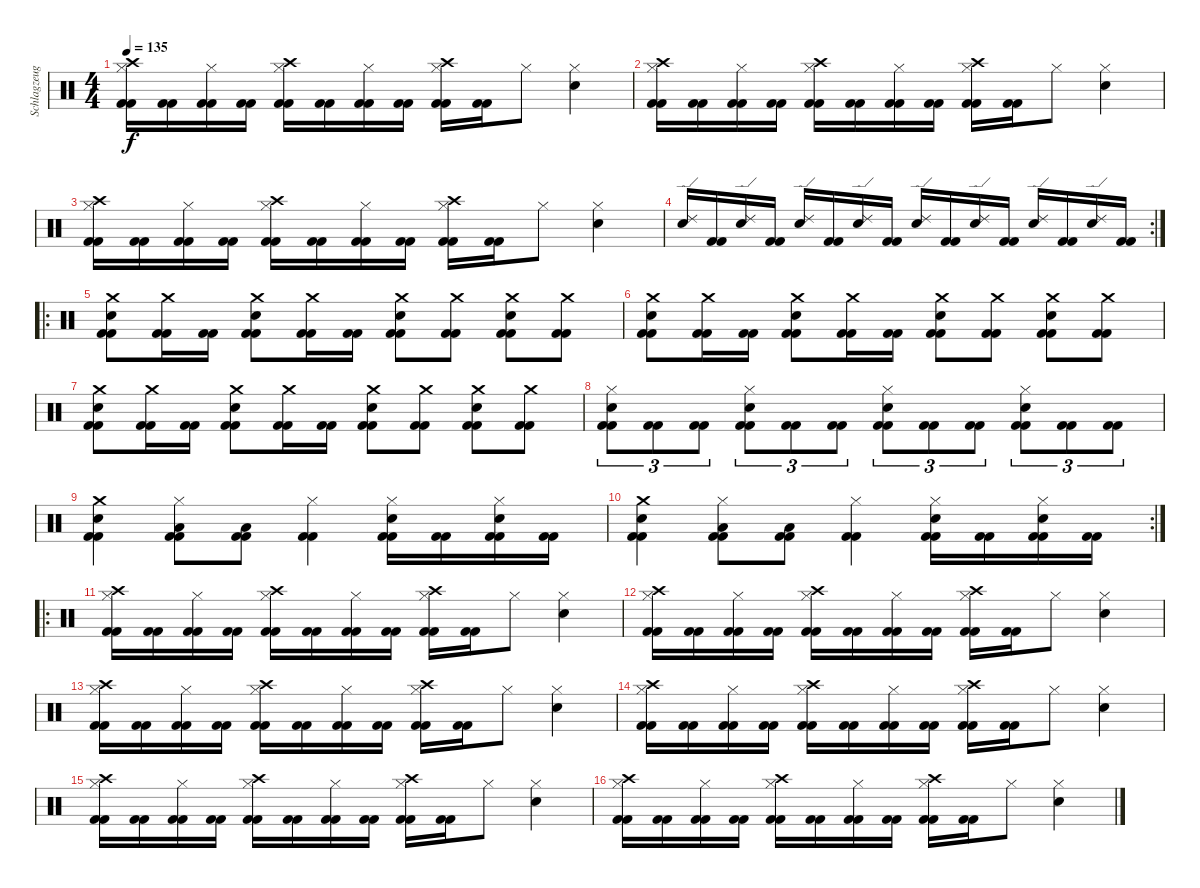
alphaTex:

\track ("Schlagzeug" "Schlagzeug") {instrument percussion}
\staff {score}
\articulation defaults
\ts (4 4)
\tempo 135
\clef neutral
\ks c
("Hi-Hat (closed)" "Crash high (hit)" "Kick (hit) 2" "Kick (hit) 2").16{dy f} ("Kick (hit) 2" "Kick (hit) 2").16 ("Hi-Hat (closed)" "Kick (hit) 2" "Kick (hit) 2").16 ("Kick (hit) 2" "Kick (hit) 2").16 ("Hi-Hat (closed)" "Crash high (hit)" "Kick (hit) 2" "Kick (hit) 2").16 ("Kick (hit) 2" "Kick (hit) 2").16 ("Hi-Hat (closed)" "Kick (hit) 2" "Kick (hit) 2").16 ("Kick (hit) 2" "Kick (hit) 2").16 ("Hi-Hat (closed)" "Crash high (hit)" "Kick (hit) 2" "Kick (hit) 2").16 ("Kick (hit) 2" "Kick (hit) 2").16 "Hi-Hat (closed)".8 ("Hi-Hat (closed)" "Snare (hit) 2").4 |
("Hi-Hat (closed)" "Crash high (hit)" "Kick (hit) 2" "Kick (hit) 2").16 ("Kick (hit) 2" "Kick (hit) 2").16 ("Hi-Hat (closed)" "Kick (hit) 2" "Kick (hit) 2").16 ("Kick (hit) 2" "Kick (hit) 2").16 ("Hi-Hat (closed)" "Crash high (hit)" "Kick (hit) 2" "Kick (hit) 2").16 ("Kick (hit) 2" "Kick (hit) 2").16 ("Hi-Hat (closed)" "Kick (hit) 2" "Kick (hit) 2").16 ("Kick (hit) 2" "Kick (hit) 2").16 ("Hi-Hat (closed)" "Crash high (hit)" "Kick (hit) 2" "Kick (hit) 2").16 ("Kick (hit) 2" "Kick (hit) 2").16 "Hi-Hat (closed)".8 ("Hi-Hat (closed)" "Snare (hit) 2").4 |
("Hi-Hat (closed)" "Crash high (hit)" "Kick (hit) 2" "Kick (hit) 2").16 ("Kick (hit) 2" "Kick (hit) 2").16 ("Hi-Hat (closed)" "Kick (hit) 2" "Kick (hit) 2").16 ("Kick (hit) 2" "Kick (hit) 2").16 ("Hi-Hat (closed)" "Crash high (hit)" "Kick (hit) 2" "Kick (hit) 2").16 ("Kick (hit) 2" "Kick (hit) 2").16 ("Hi-Hat (closed)" "Kick (hit) 2" "Kick (hit) 2").16 ("Kick (hit) 2" "Kick (hit) 2").16 ("Hi-Hat (closed)" "Crash high (hit)" "Kick (hit) 2" "Kick (hit) 2").16 ("Kick (hit) 2" "Kick (hit) 2").16 "Hi-Hat (closed)".8 ("Hi-Hat (closed)" "Snare (hit) 2").4 |
\rc 2
("Ride (edge) 2" "Snare (hit) 2").16 ("Kick (hit) 2" "Kick (hit) 2").16 ("Ride (edge) 2" "Snare (hit) 2").16 ("Kick (hit) 2" "Kick (hit) 2").16 ("Ride (edge) 2" "Snare (hit) 2").16 ("Kick (hit) 2" "Kick (hit) 2").16 ("Ride (edge) 2" "Snare (hit) 2").16 ("Kick (hit) 2" "Kick (hit) 2").16 ("Ride (edge) 2" "Snare (hit) 2").16 ("Kick (hit) 2" "Kick (hit) 2").16 ("Ride (edge) 2" "Snare (hit) 2").16 ("Kick (hit) 2" "Kick (hit) 2").16 ("Ride (edge) 2" "Snare (hit) 2").16 ("Kick (hit) 2" "Kick (hit) 2").16 ("Ride (edge) 2" "Snare (hit) 2").16 ("Kick (hit) 2" "Kick (hit) 2").16 |
\ro
("Crash medium (hit)" "Snare (hit) 2" "Kick (hit) 2" "Kick (hit) 2").8 ("Crash medium (hit)" "Kick (hit) 2" "Kick (hit) 2").16 ("Kick (hit) 2" "Kick (hit) 2").16 ("Crash medium (hit)" "Snare (hit) 2" "Kick (hit) 2" "Kick (hit) 2").8 ("Crash medium (hit)" "Kick (hit) 2" "Kick (hit) 2").16 ("Kick (hit) 2" "Kick (hit) 2").16 ("Crash medium (hit)" "Snare (hit) 2" "Kick (hit) 2" "Kick (hit) 2").8 ("Crash medium (hit)" "Kick (hit) 2" "Kick (hit) 2").8 ("Crash medium (hit)" "Snare (hit) 2" "Kick (hit) 2" "Kick (hit) 2").8 ("Crash medium (hit)" "Kick (hit) 2" "Kick (hit) 2").8 |
("Crash medium (hit)" "Snare (hit) 2" "Kick (hit) 2" "Kick (hit) 2").8 ("Crash medium (hit)" "Kick (hit) 2" "Kick (hit) 2").16 ("Kick (hit) 2" "Kick (hit) 2").16 ("Crash medium (hit)" "Snare (hit) 2" "Kick (hit) 2" "Kick (hit) 2").8 ("Crash medium (hit)" "Kick (hit) 2" "Kick (hit) 2").16 ("Kick (hit) 2" "Kick (hit) 2").16 ("Crash medium (hit)" "Snare (hit) 2" "Kick (hit) 2" "Kick (hit) 2").8 ("Crash medium (hit)" "Kick (hit) 2" "Kick (hit) 2").8 ("Crash medium (hit)" "Snare (hit) 2" "Kick (hit) 2" "Kick (hit) 2").8 ("Crash medium (hit)" "Kick (hit) 2" "Kick (hit) 2").8 |
("Crash medium (hit)" "Snare (hit) 2" "Kick (hit) 2" "Kick (hit) 2").8 ("Crash medium (hit)" "Kick (hit) 2" "Kick (hit) 2").16 ("Kick (hit) 2" "Kick (hit) 2").16 ("Crash medium (hit)" "Snare (hit) 2" "Kick (hit) 2" "Kick (hit) 2").8 ("Crash medium (hit)" "Kick (hit) 2" "Kick (hit) 2").16 ("Kick (hit) 2" "Kick (hit) 2").16 ("Crash medium (hit)" "Snare (hit) 2" "Kick (hit) 2" "Kick (hit) 2").8 ("Crash medium (hit)" "Kick (hit) 2" "Kick (hit) 2").8 ("Crash medium (hit)" "Snare (hit) 2" "Kick (hit) 2" "Kick (hit) 2").8 ("Crash medium (hit)" "Kick (hit) 2" "Kick (hit) 2").8 |
("Hi-Hat (closed)" "Snare (hit) 2" "Kick (hit) 2" "Kick (hit) 2").8{tu (3 2)} ("Kick (hit) 2" "Kick (hit) 2").8{tu (3 2)} ("Kick (hit) 2" "Kick (hit) 2").8{tu (3 2)} ("Hi-Hat (closed)" "Snare (hit) 2" "Kick (hit) 2" "Kick (hit) 2").8{tu (3 2)} ("Kick (hit) 2" "Kick (hit) 2").8{tu (3 2)} ("Kick (hit) 2" "Kick (hit) 2").8{tu (3 2)} ("Hi-Hat (closed)" "Snare (hit) 2" "Kick (hit) 2" "Kick (hit) 2").8{tu (3 2)} ("Kick (hit) 2" "Kick (hit) 2").8{tu (3 2)} ("Kick (hit) 2" "Kick (hit) 2").8{tu (3 2)} ("Hi-Hat (closed)" "Snare (hit) 2" "Kick (hit) 2" "Kick (hit) 2").8{tu (3 2)} ("Kick (hit) 2" "Kick (hit) 2").8{tu (3 2)} ("Kick (hit) 2" "Kick (hit) 2").8{tu (3 2)} |
("Crash medium (hit)" "Snare (hit) 2" "Kick (hit) 2" "Kick (hit) 2").4 ("Hi-Hat (closed)" "Low Floor Tom (hit)" "Kick (hit) 2" "Kick (hit) 2").8 ("Low Floor Tom (hit)" "Kick (hit) 2" "Kick (hit) 2").8 ("Hi-Hat (closed)" "Kick (hit) 2" "Kick (hit) 2").4 ("Hi-Hat (closed)" "Snare (hit) 2" "Kick (hit) 2" "Kick (hit) 2").16 ("Kick (hit) 2" "Kick (hit) 2").16 ("Hi-Hat (closed)" "Snare (hit) 2" "Kick (hit) 2" "Kick (hit) 2").16 ("Kick (hit) 2" "Kick (hit) 2").16 |
\rc 2
("Crash medium (hit)" "Snare (hit) 2" "Kick (hit) 2" "Kick (hit) 2").4 ("Hi-Hat (closed)" "Low Floor Tom (hit)" "Kick (hit) 2" "Kick (hit) 2").8 ("Low Floor Tom (hit)" "Kick (hit) 2" "Kick (hit) 2").8 ("Hi-Hat (closed)" "Kick (hit) 2" "Kick (hit) 2").4 ("Hi-Hat (closed)" "Snare (hit) 2" "Kick (hit) 2" "Kick (hit) 2").16 ("Kick (hit) 2" "Kick (hit) 2").16 ("Hi-Hat (closed)" "Snare (hit) 2" "Kick (hit) 2" "Kick (hit) 2").16 ("Kick (hit) 2" "Kick (hit) 2").16 |
\ro
("Hi-Hat (closed)" "Crash high (hit)" "Kick (hit) 2" "Kick (hit) 2").16 ("Kick (hit) 2" "Kick (hit) 2").16 ("Hi-Hat (closed)" "Kick (hit) 2" "Kick (hit) 2").16 ("Kick (hit) 2" "Kick (hit) 2").16 ("Hi-Hat (closed)" "Crash high (hit)" "Kick (hit) 2" "Kick (hit) 2").16 ("Kick (hit) 2" "Kick (hit) 2").16 ("Hi-Hat (closed)" "Kick (hit) 2" "Kick (hit) 2").16 ("Kick (hit) 2" "Kick (hit) 2").16 ("Hi-Hat (closed)" "Crash high (hit)" "Kick (hit) 2" "Kick (hit) 2").16 ("Kick (hit) 2" "Kick (hit) 2").16 "Hi-Hat (closed)".8 ("Hi-Hat (closed)" "Snare (hit) 2").4 |
("Hi-Hat (closed)" "Crash high (hit)" "Kick (hit) 2" "Kick (hit) 2").16 ("Kick (hit) 2" "Kick (hit) 2").16 ("Hi-Hat (closed)" "Kick (hit) 2" "Kick (hit) 2").16 ("Kick (hit) 2" "Kick (hit) 2").16 ("Hi-Hat (closed)" "Crash high (hit)" "Kick (hit) 2" "Kick (hit) 2").16 ("Kick (hit) 2" "Kick (hit) 2").16 ("Hi-Hat (closed)" "Kick (hit) 2" "Kick (hit) 2").16 ("Kick (hit) 2" "Kick (hit) 2").16 ("Hi-Hat (closed)" "Crash high (hit)" "Kick (hit) 2" "Kick (hit) 2").16 ("Kick (hit) 2" "Kick (hit) 2").16 "Hi-Hat (closed)".8 ("Hi-Hat (closed)" "Snare (hit) 2").4 |
("Hi-Hat (closed)" "Crash high (hit)" "Kick (hit) 2" "Kick (hit) 2").16 ("Kick (hit) 2" "Kick (hit) 2").16 ("Hi-Hat (closed)" "Kick (hit) 2" "Kick (hit) 2").16 ("Kick (hit) 2" "Kick (hit) 2").16 ("Hi-Hat (closed)" "Crash high (hit)" "Kick (hit) 2" "Kick (hit) 2").16 ("Kick (hit) 2" "Kick (hit) 2").16 ("Hi-Hat (closed)" "Kick (hit) 2" "Kick (hit) 2").16 ("Kick (hit) 2" "Kick (hit) 2").16 ("Hi-Hat (closed)" "Crash high (hit)" "Kick (hit) 2" "Kick (hit) 2").16 ("Kick (hit) 2" "Kick (hit) 2").16 "Hi-Hat (closed)".8 ("Hi-Hat (closed)" "Snare (hit) 2").4 |
("Hi-Hat (closed)" "Crash high (hit)" "Kick (hit) 2" "Kick (hit) 2").16 ("Kick (hit) 2" "Kick (hit) 2").16 ("Hi-Hat (closed)" "Kick (hit) 2" "Kick (hit) 2").16 ("Kick (hit) 2" "Kick (hit) 2").16 ("Hi-Hat (closed)" "Crash high (hit)" "Kick (hit) 2" "Kick (hit) 2").16 ("Kick (hit) 2" "Kick (hit) 2").16 ("Hi-Hat (closed)" "Kick (hit) 2" "Kick (hit) 2").16 ("Kick (hit) 2" "Kick (hit) 2").16 ("Hi-Hat (closed)" "Crash high (hit)" "Kick (hit) 2" "Kick (hit) 2").16 ("Kick (hit) 2" "Kick (hit) 2").16 "Hi-Hat (closed)".8 ("Hi-Hat (closed)" "Snare (hit) 2").4 |
("Hi-Hat (closed)" "Crash high (hit)" "Kick (hit) 2" "Kick (hit) 2").16 ("Kick (hit) 2" "Kick (hit) 2").16 ("Hi-Hat (closed)" "Kick (hit) 2" "Kick (hit) 2").16 ("Kick (hit) 2" "Kick (hit) 2").16 ("Hi-Hat (closed)" "Crash high (hit)" "Kick (hit) 2" "Kick (hit) 2").16 ("Kick (hit) 2" "Kick (hit) 2").16 ("Hi-Hat (closed)" "Kick (hit) 2" "Kick (hit) 2").16 ("Kick (hit) 2" "Kick (hit) 2").16 ("Hi-Hat (closed)" "Crash high (hit)" "Kick (hit) 2" "Kick (hit) 2").16 ("Kick (hit) 2" "Kick (hit) 2").16 "Hi-Hat (closed)".8 ("Hi-Hat (closed)" "Snare (hit) 2").4 |
("Hi-Hat (closed)" "Crash high (hit)" "Kick (hit) 2" "Kick (hit) 2").16 ("Kick (hit) 2" "Kick (hit) 2").16 ("Hi-Hat (closed)" "Kick (hit) 2" "Kick (hit) 2").16 ("Kick (hit) 2" "Kick (hit) 2").16 ("Hi-Hat (closed)" "Crash high (hit)" "Kick (hit) 2" "Kick (hit) 2").16 ("Kick (hit) 2" "Kick (hit) 2").16 ("Hi-Hat (closed)" "Kick (hit) 2" "Kick (hit) 2").16 ("Kick (hit) 2" "Kick (hit) 2").16 ("Hi-Hat (closed)" "Crash high (hit)" "Kick (hit) 2" "Kick (hit) 2").16 ("Kick (hit) 2" "Kick (hit) 2").16 "Hi-Hat (closed)".8 ("Hi-Hat (closed)" "Snare (hit) 2").4
